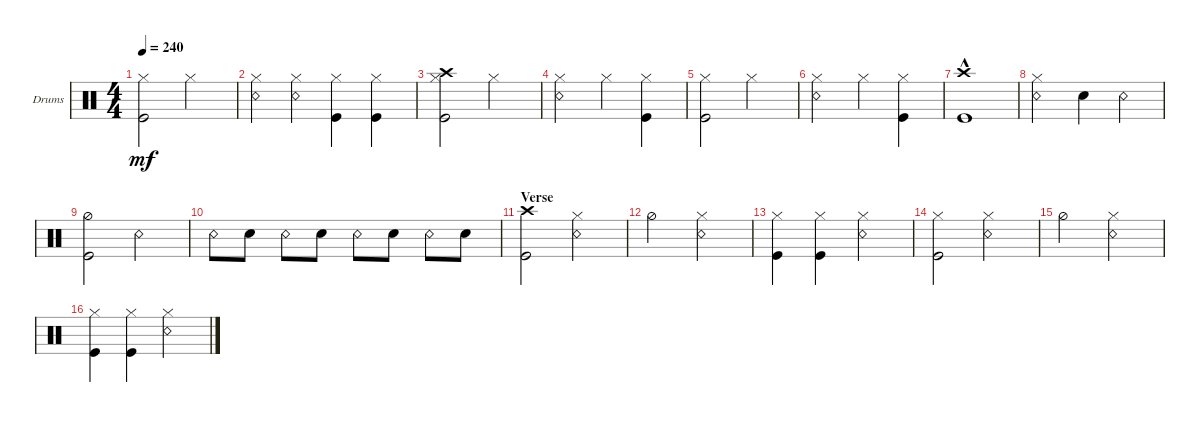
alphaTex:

\defaultSystemsLayout 4
\bracketExtendMode groupsimilarinstruments
\firstSystemTrackNameOrientation horizontal
\otherSystemsTrackNameOrientation horizontal
\track ("Drumkit" "Drums") {instrument percussion}
\staff {score}
\articulation defaults
\ts (4 4)
\tempo 240
\clef neutral
\ks c
("Kick (hit)" "Hi-Hat (closed)").2{dy mf} "Hi-Hat (closed)".2 |
("Snare (rim shot)" "Hi-Hat (closed)").4 ("Snare (rim shot)" "Hi-Hat (closed)").4 ("Kick (hit)" "Hi-Hat (closed)").4 ("Kick (hit)" "Hi-Hat (closed)").4 |
("Kick (hit)" "Hi-Hat (closed)" "Crash high (hit)").2 "Hi-Hat (closed)".2 |
("Snare (rim shot)" "Hi-Hat (closed)").2 "Hi-Hat (closed)".4 ("Kick (hit)" "Hi-Hat (closed)").4 |
("Kick (hit)" "Hi-Hat (closed)").2 "Hi-Hat (closed)".2 |
("Snare (rim shot)" "Hi-Hat (closed)").2 "Hi-Hat (closed)".4 ("Kick (hit)" "Hi-Hat (closed)").4 |
("Crash high (hit)"{hac} "Kick (hit)"{hac}).1 |
("Snare (rim shot)" "Hi-Hat (closed)").2 "Snare (hit) 2".4 "Snare (rim shot)".4 |
("Kick (hit)" "Hi-Hat (half)").2 "Snare (rim shot)".2 |
"Snare (rim shot)".8 "Snare (hit) 2".8 "Snare (rim shot)".8 "Snare (hit) 2".8 "Snare (rim shot)".8 "Snare (hit) 2".8 "Snare (rim shot)".8 "Snare (hit) 2".8 |
\section ("" "Verse")
("Crash high (hit)" "Kick (hit)").2 ("Snare (rim shot)" "Hi-Hat (closed)").2 |
"Hi-Hat (half)".2 ("Snare (rim shot)" "Hi-Hat (closed)").2 |
("Kick (hit)" "Hi-Hat (closed)").4 ("Kick (hit)" "Hi-Hat (closed)").4 ("Snare (rim shot)" "Hi-Hat (closed)").2 |
("Kick (hit)" "Hi-Hat (closed)").2 ("Snare (rim shot)" "Hi-Hat (closed)").2 |
"Hi-Hat (half)".2 ("Snare (rim shot)" "Hi-Hat (closed)").2 |
("Kick (hit)" "Hi-Hat (closed)").4 ("Kick (hit)" "Hi-Hat (closed)").4 ("Snare (rim shot)" "Hi-Hat (closed)").2
